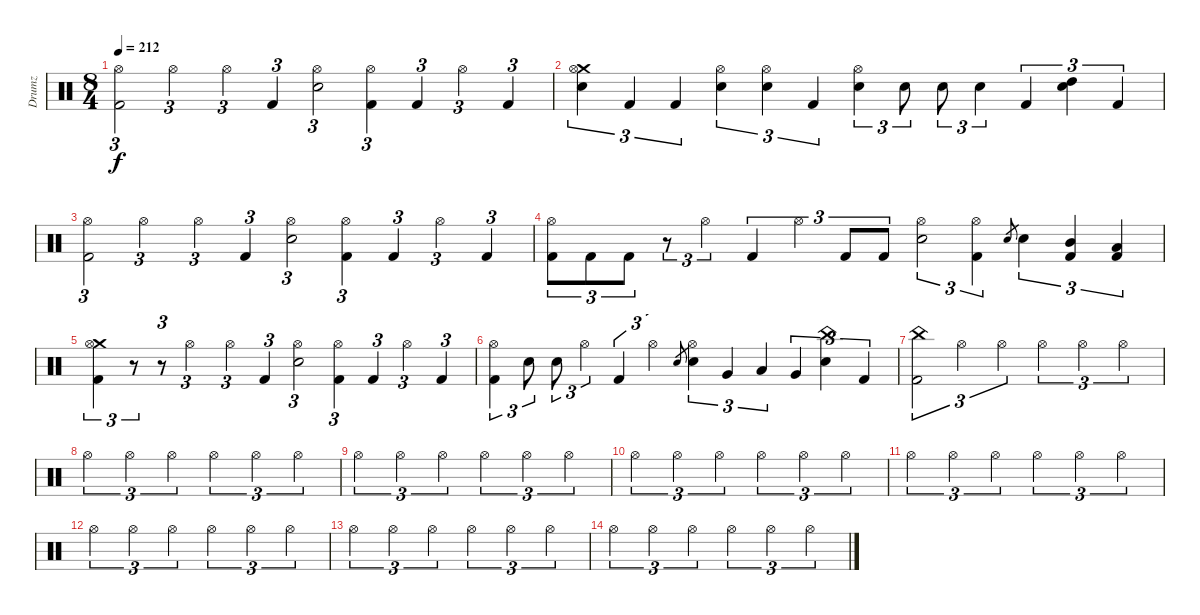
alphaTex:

\track ("Drumz" "Drumz") {instrument percussion}
\staff {score}
\articulation defaults
\ts (8 4)
\tempo 212
\clef neutral
\ks c
("Hi-Hat (open)" "Kick (hit) 2").2{tu (3 2) dy f} "Hi-Hat (open)".2{tu (3 2)} "Hi-Hat (open)".4{tu (3 2)} "Kick (hit) 2".4{tu (3 2)} ("Hi-Hat (open)" "Electric Snare (hit)").2{tu (3 2)} ("Hi-Hat (open)" "Kick (hit) 2").4{tu (3 2)} "Kick (hit) 2".4{tu (3 2)} "Hi-Hat (open)".4{tu (3 2)} "Kick (hit) 2".4{tu (3 2)} |
("Crash medium (hit)" "Hi-Hat (open)" "Electric Snare (hit)").4{tu (3 2)} "Kick (hit) 2".4{tu (3 2)} "Kick (hit) 2".4{tu (3 2)} ("Hi-Hat (open)" "Electric Snare (hit)").4{tu (3 2)} ("Hi-Hat (open)" "Electric Snare (hit)").4{tu (3 2)} "Kick (hit) 2".4{tu (3 2)} ("Hi-Hat (open)" "Electric Snare (hit)").4{tu (3 2)} "Electric Snare (hit)".8{tu (3 2)} "Electric Snare (hit)".8{tu (3 2)} "Electric Snare (hit)".4{tu (3 2)} "Kick (hit) 2".4{tu (3 2)} ("High Tom (hit)" "Electric Snare (hit)").4{tu (3 2)} "Kick (hit) 2".4{tu (3 2)} |
("Hi-Hat (open)" "Kick (hit) 2").2{tu (3 2)} "Hi-Hat (open)".2{tu (3 2)} "Hi-Hat (open)".4{tu (3 2)} "Kick (hit) 2".4{tu (3 2)} ("Hi-Hat (open)" "Electric Snare (hit)").2{tu (3 2)} ("Hi-Hat (open)" "Kick (hit) 2").4{tu (3 2)} "Kick (hit) 2".4{tu (3 2)} "Hi-Hat (open)".4{tu (3 2)} "Kick (hit) 2".4{tu (3 2)} |
("Hi-Hat (open)" "Kick (hit) 2").8{tu (3 2)} "Kick (hit) 2".8{tu (3 2)} "Kick (hit) 2".8{tu (3 2)} r.8{tu (3 2)} "Hi-Hat (open)".4{tu (3 2)} "Kick (hit) 2".4{tu (3 2)} "Hi-Hat (open)".4{tu (3 2)} "Kick (hit) 2".8{tu (3 2)} "Kick (hit) 2".8{tu (3 2)} ("Hi-Hat (open)" "Electric Snare (hit)").2{tu (3 2)} ("Hi-Hat (open)" "Kick (hit) 2").4{tu (3 2)} "Electric Snare (hit)".8{gr} "Electric Snare (hit)".4{tu (3 2)} ("Mid Tom (hit)" "Kick (hit) 2").4{tu (3 2)} ("Low Tom (hit)" "Kick (hit) 2").4{tu (3 2)} |
("Crash medium (hit)" "Hi-Hat (open)" "Kick (hit) 2").4{tu (3 2)} r.8{tu (3 2)} r.8{tu (3 2)} "Hi-Hat (open)".2{tu (3 2)} "Hi-Hat (open)".4{tu (3 2)} "Kick (hit) 2".4{tu (3 2)} ("Hi-Hat (open)" "Electric Snare (hit)").2{tu (3 2)} ("Hi-Hat (open)" "Kick (hit) 2").4{tu (3 2)} "Kick (hit) 2".4{tu (3 2)} "Hi-Hat (open)".4{tu (3 2)} "Kick (hit) 2".4{tu (3 2)} |
("Hi-Hat (open)" "Kick (hit) 2").4{tu (3 2)} "Electric Snare (hit)".8{tu (3 2)} "Electric Snare (hit)".8{tu (3 2)} "Hi-Hat (open)".4{tu (3 2)} "Kick (hit) 2".4{tu (3 2)} "Hi-Hat (open)".2{tu (3 2)} "Electric Snare (hit)".8{gr} ("Hi-Hat (open)" "Electric Snare (hit)").4{tu (3 2)} "Very Low Tom (hit)".4{tu (3 2)} "Low Tom (hit)".4{tu (3 2)} "Very Low Tom (hit)".4{tu (3 2)} ("China (hit)" "Electric Snare (hit)").4{tu (3 2)} "Kick (hit) 2".4{tu (3 2)} |
("China (hit)" "Kick (hit) 2").2{tu (3 2)} "Hi-Hat (open)".2{tu (3 2)} "Hi-Hat (open)".2{tu (3 2)} "Hi-Hat (open)".2{tu (3 2)} "Hi-Hat (open)".2{tu (3 2)} "Hi-Hat (open)".2{tu (3 2)} |
"Hi-Hat (open)".2{tu (3 2)} "Hi-Hat (open)".2{tu (3 2)} "Hi-Hat (open)".2{tu (3 2)} "Hi-Hat (open)".2{tu (3 2)} "Hi-Hat (open)".2{tu (3 2)} "Hi-Hat (open)".2{tu (3 2)} |
"Hi-Hat (open)".2{tu (3 2)} "Hi-Hat (open)".2{tu (3 2)} "Hi-Hat (open)".2{tu (3 2)} "Hi-Hat (open)".2{tu (3 2)} "Hi-Hat (open)".2{tu (3 2)} "Hi-Hat (open)".2{tu (3 2)} |
"Hi-Hat (open)".2{tu (3 2)} "Hi-Hat (open)".2{tu (3 2)} "Hi-Hat (open)".2{tu (3 2)} "Hi-Hat (open)".2{tu (3 2)} "Hi-Hat (open)".2{tu (3 2)} "Hi-Hat (open)".2{tu (3 2)} |
"Hi-Hat (open)".2{tu (3 2)} "Hi-Hat (open)".2{tu (3 2)} "Hi-Hat (open)".2{tu (3 2)} "Hi-Hat (open)".2{tu (3 2)} "Hi-Hat (open)".2{tu (3 2)} "Hi-Hat (open)".2{tu (3 2)} |
"Hi-Hat (open)".2{tu (3 2)} "Hi-Hat (open)".2{tu (3 2)} "Hi-Hat (open)".2{tu (3 2)} "Hi-Hat (open)".2{tu (3 2)} "Hi-Hat (open)".2{tu (3 2)} "Hi-Hat (open)".2{tu (3 2)} |
"Hi-Hat (open)".2{tu (3 2)} "Hi-Hat (open)".2{tu (3 2)} "Hi-Hat (open)".2{tu (3 2)} "Hi-Hat (open)".2{tu (3 2)} "Hi-Hat (open)".2{tu (3 2)} "Hi-Hat (open)".2{tu (3 2)} |
"Hi-Hat (open)".2{tu (3 2)} "Hi-Hat (open)".2{tu (3 2)} "Hi-Hat (open)".2{tu (3 2)} "Hi-Hat (open)".2{tu (3 2)} "Hi-Hat (open)".2{tu (3 2)} "Hi-Hat (open)".2{tu (3 2)}
